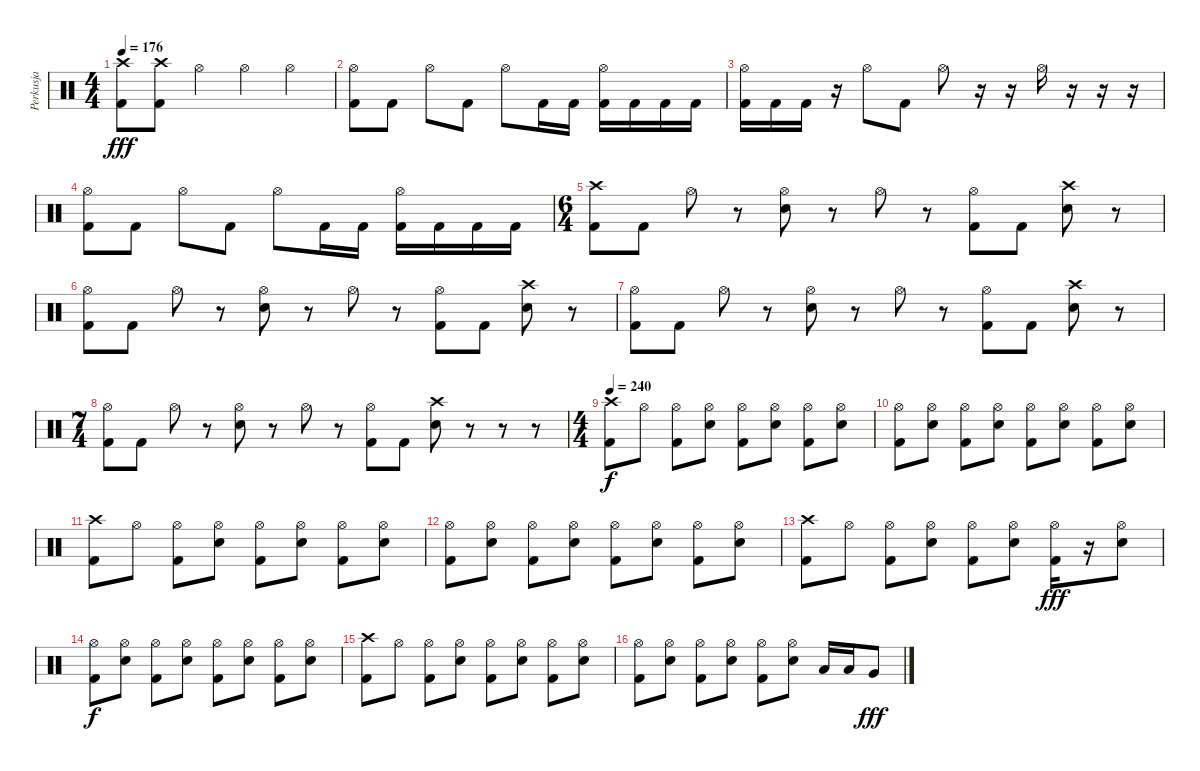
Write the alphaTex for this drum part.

\track ("Perkusja" "Perkusja") {instrument percussion bank 10}
\staff {score}
\articulation defaults
\ts (4 4)
\tempo 176
\clef neutral
\ks c
("Crash high (hit)" "Kick (hit) 2").8{dy fff} ("Crash high (hit)" "Kick (hit) 2").8 "Hi-Hat (open)".4 "Hi-Hat (open)".4 "Hi-Hat (open)".4 |
("Hi-Hat (open)" "Kick (hit) 2").8 "Kick (hit) 2".8 "Hi-Hat (open)".8 "Kick (hit) 2".8 "Hi-Hat (open)".8 "Kick (hit) 2".16 "Kick (hit) 2".16 ("Hi-Hat (open)" "Kick (hit) 2").16 "Kick (hit) 2".16 "Kick (hit) 2".16 "Kick (hit) 2".16 |
("Hi-Hat (open)" "Kick (hit) 2").16 "Kick (hit) 2".16 "Kick (hit) 2".16 r.16 "Hi-Hat (open)".8 "Kick (hit) 2".8 "Hi-Hat (open)".8 r.16 r.16 "Hi-Hat (open)".16 r.16 r.16 r.16 |
("Hi-Hat (open)" "Kick (hit) 2").8 "Kick (hit) 2".8 "Hi-Hat (open)".8 "Kick (hit) 2".8 "Hi-Hat (open)".8 "Kick (hit) 2".16 "Kick (hit) 2".16 ("Hi-Hat (open)" "Kick (hit) 2").16 "Kick (hit) 2".16 "Kick (hit) 2".16 "Kick (hit) 2".16 |
\ts (6 4)
("Crash high (hit)" "Kick (hit) 2").8 "Kick (hit) 2".8 "Hi-Hat (open)".8 r.8 ("Hi-Hat (open)" "Snare (hit) 2").8 r.8 "Hi-Hat (open)".8 r.8 ("Hi-Hat (open)" "Kick (hit) 2").8 "Kick (hit) 2".8 ("Crash high (hit)" "Snare (hit) 2").8 r.8 |
("Hi-Hat (open)" "Kick (hit) 2").8 "Kick (hit) 2".8 "Hi-Hat (open)".8 r.8 ("Hi-Hat (open)" "Snare (hit) 2").8 r.8 "Hi-Hat (open)".8 r.8 ("Hi-Hat (open)" "Kick (hit) 2").8 "Kick (hit) 2".8 ("Crash high (hit)" "Snare (hit) 2").8 r.8 |
("Hi-Hat (open)" "Kick (hit) 2").8 "Kick (hit) 2".8 "Hi-Hat (open)".8 r.8 ("Hi-Hat (open)" "Snare (hit) 2").8 r.8 "Hi-Hat (open)".8 r.8 ("Hi-Hat (open)" "Kick (hit) 2").8 "Kick (hit) 2".8 ("Crash high (hit)" "Snare (hit) 2").8 r.8 |
\ts (7 4)
("Hi-Hat (open)" "Kick (hit) 2").8 "Kick (hit) 2".8 "Hi-Hat (open)".8 r.8 ("Hi-Hat (open)" "Snare (hit) 2").8 r.8 "Hi-Hat (open)".8 r.8 ("Hi-Hat (open)" "Kick (hit) 2").8 "Kick (hit) 2".8 ("Crash high (hit)" "Snare (hit) 2").8 r.8 r.8 r.8 |
\ts (4 4)
\tempo 240
("Crash high (hit)" "Kick (hit) 2").8{dy f} "Hi-Hat (open)".8 ("Hi-Hat (open)" "Kick (hit) 2").8 ("Hi-Hat (open)" "Snare (hit) 2").8 ("Hi-Hat (open)" "Kick (hit) 2").8 ("Hi-Hat (open)" "Snare (hit) 2").8 ("Hi-Hat (open)" "Kick (hit) 2").8 ("Hi-Hat (open)" "Snare (hit) 2").8 |
("Hi-Hat (open)" "Kick (hit) 2").8 ("Hi-Hat (open)" "Snare (hit) 2").8 ("Hi-Hat (open)" "Kick (hit) 2").8 ("Hi-Hat (open)" "Snare (hit) 2").8 ("Hi-Hat (open)" "Kick (hit) 2").8 ("Hi-Hat (open)" "Snare (hit) 2").8 ("Hi-Hat (open)" "Kick (hit) 2").8 ("Hi-Hat (open)" "Snare (hit) 2").8 |
("Crash high (hit)" "Kick (hit) 2").8 "Hi-Hat (open)".8 ("Hi-Hat (open)" "Kick (hit) 2").8 ("Hi-Hat (open)" "Snare (hit) 2").8 ("Hi-Hat (open)" "Kick (hit) 2").8 ("Hi-Hat (open)" "Snare (hit) 2").8 ("Hi-Hat (open)" "Kick (hit) 2").8 ("Hi-Hat (open)" "Snare (hit) 2").8 |
("Hi-Hat (open)" "Kick (hit) 2").8 ("Hi-Hat (open)" "Snare (hit) 2").8 ("Hi-Hat (open)" "Kick (hit) 2").8 ("Hi-Hat (open)" "Snare (hit) 2").8 ("Hi-Hat (open)" "Kick (hit) 2").8 ("Hi-Hat (open)" "Snare (hit) 2").8 ("Hi-Hat (open)" "Kick (hit) 2").8 ("Hi-Hat (open)" "Snare (hit) 2").8 |
("Crash high (hit)" "Kick (hit) 2").8 "Hi-Hat (open)".8 ("Hi-Hat (open)" "Kick (hit) 2").8 ("Hi-Hat (open)" "Snare (hit) 2").8 ("Hi-Hat (open)" "Kick (hit) 2").8 ("Hi-Hat (open)" "Snare (hit) 2").8 ("Hi-Hat (open)" "Kick (hit) 2").16{dy fff} r.16 ("Hi-Hat (open)" "Snare (hit) 2").8 |
("Hi-Hat (open)" "Kick (hit) 2").8{dy f} ("Hi-Hat (open)" "Snare (hit) 2").8 ("Hi-Hat (open)" "Kick (hit) 2").8 ("Hi-Hat (open)" "Snare (hit) 2").8 ("Hi-Hat (open)" "Kick (hit) 2").8 ("Hi-Hat (open)" "Snare (hit) 2").8 ("Hi-Hat (open)" "Kick (hit) 2").8 ("Hi-Hat (open)" "Snare (hit) 2").8 |
("Crash high (hit)" "Kick (hit) 2").8 "Hi-Hat (open)".8 ("Hi-Hat (open)" "Kick (hit) 2").8 ("Hi-Hat (open)" "Snare (hit) 2").8 ("Hi-Hat (open)" "Kick (hit) 2").8 ("Hi-Hat (open)" "Snare (hit) 2").8 ("Hi-Hat (open)" "Kick (hit) 2").8 ("Hi-Hat (open)" "Snare (hit) 2").8 |
("Hi-Hat (open)" "Kick (hit) 2").8 ("Hi-Hat (open)" "Snare (hit) 2").8 ("Hi-Hat (open)" "Kick (hit) 2").8 ("Hi-Hat (open)" "Snare (hit) 2").8 ("Hi-Hat (open)" "Kick (hit) 2").8 ("Hi-Hat (open)" "Snare (hit) 2").8 "Low Tom (hit)".16 "Low Tom (hit)".16 "Very Low Tom (hit)".8{dy fff}
